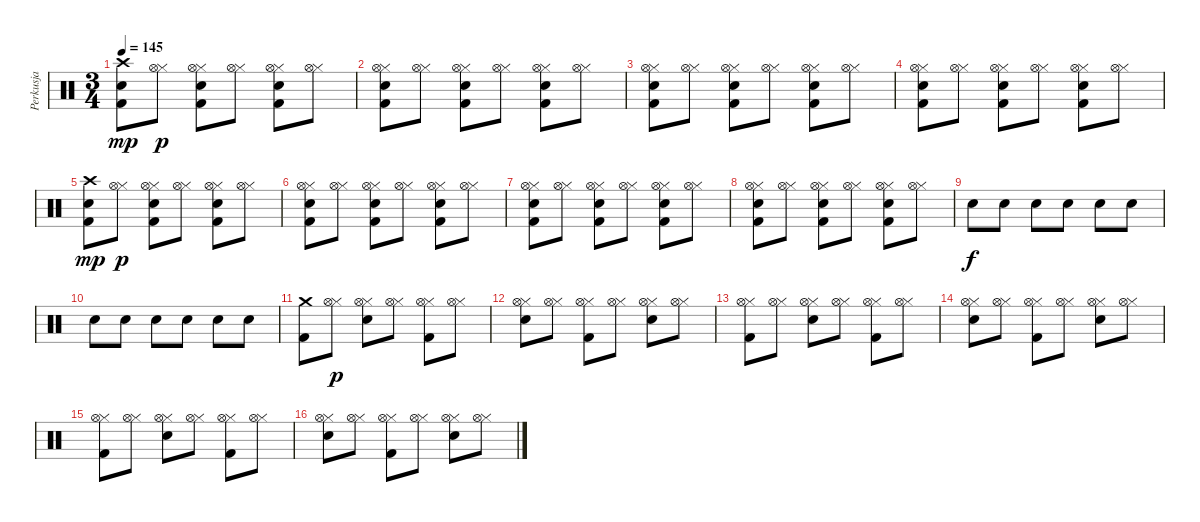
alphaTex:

\track ("Perkusja" "Perkusja") {instrument percussion}
\staff {score}
\articulation defaults
\ts (3 4)
\tempo 145
\clef neutral
\ks c
("Kick (hit) 2" "Electric Snare (hit)" "Crash high (hit)").8{dy mp} ("Hi-Hat (closed)" "Hi-Hat (open)").8{dy p} ("Kick (hit) 2" "Electric Snare (hit)" "Hi-Hat (closed)" "Hi-Hat (open)").8 ("Hi-Hat (closed)" "Hi-Hat (open)").8 ("Kick (hit) 2" "Electric Snare (hit)" "Hi-Hat (closed)" "Hi-Hat (open)").8 ("Hi-Hat (closed)" "Hi-Hat (open)").8 |
("Kick (hit) 2" "Electric Snare (hit)" "Hi-Hat (closed)" "Hi-Hat (open)").8 ("Hi-Hat (closed)" "Hi-Hat (open)").8 ("Kick (hit) 2" "Electric Snare (hit)" "Hi-Hat (closed)" "Hi-Hat (open)").8 ("Hi-Hat (closed)" "Hi-Hat (open)").8 ("Kick (hit) 2" "Electric Snare (hit)" "Hi-Hat (closed)" "Hi-Hat (open)").8 ("Hi-Hat (closed)" "Hi-Hat (open)").8 |
("Kick (hit) 2" "Electric Snare (hit)" "Hi-Hat (closed)" "Hi-Hat (open)").8 ("Hi-Hat (closed)" "Hi-Hat (open)").8 ("Kick (hit) 2" "Electric Snare (hit)" "Hi-Hat (closed)" "Hi-Hat (open)").8 ("Hi-Hat (closed)" "Hi-Hat (open)").8 ("Kick (hit) 2" "Electric Snare (hit)" "Hi-Hat (closed)" "Hi-Hat (open)").8 ("Hi-Hat (closed)" "Hi-Hat (open)").8 |
("Kick (hit) 2" "Electric Snare (hit)" "Hi-Hat (closed)" "Hi-Hat (open)").8 ("Hi-Hat (closed)" "Hi-Hat (open)").8 ("Kick (hit) 2" "Electric Snare (hit)" "Hi-Hat (closed)" "Hi-Hat (open)").8 ("Hi-Hat (closed)" "Hi-Hat (open)").8 ("Kick (hit) 2" "Electric Snare (hit)" "Hi-Hat (closed)" "Hi-Hat (open)").8 ("Hi-Hat (closed)" "Hi-Hat (open)").8 |
("Kick (hit) 2" "Electric Snare (hit)" "Crash high (hit)").8{dy mp} ("Hi-Hat (closed)" "Hi-Hat (open)").8{dy p} ("Kick (hit) 2" "Electric Snare (hit)" "Hi-Hat (closed)" "Hi-Hat (open)").8 ("Hi-Hat (closed)" "Hi-Hat (open)").8 ("Kick (hit) 2" "Electric Snare (hit)" "Hi-Hat (closed)" "Hi-Hat (open)").8 ("Hi-Hat (closed)" "Hi-Hat (open)").8 |
("Kick (hit) 2" "Electric Snare (hit)" "Hi-Hat (closed)" "Hi-Hat (open)").8 ("Hi-Hat (closed)" "Hi-Hat (open)").8 ("Kick (hit) 2" "Electric Snare (hit)" "Hi-Hat (closed)" "Hi-Hat (open)").8 ("Hi-Hat (closed)" "Hi-Hat (open)").8 ("Kick (hit) 2" "Electric Snare (hit)" "Hi-Hat (closed)" "Hi-Hat (open)").8 ("Hi-Hat (closed)" "Hi-Hat (open)").8 |
("Kick (hit) 2" "Electric Snare (hit)" "Hi-Hat (closed)" "Hi-Hat (open)").8 ("Hi-Hat (closed)" "Hi-Hat (open)").8 ("Kick (hit) 2" "Electric Snare (hit)" "Hi-Hat (closed)" "Hi-Hat (open)").8 ("Hi-Hat (closed)" "Hi-Hat (open)").8 ("Kick (hit) 2" "Electric Snare (hit)" "Hi-Hat (closed)" "Hi-Hat (open)").8 ("Hi-Hat (closed)" "Hi-Hat (open)").8 |
("Kick (hit) 2" "Electric Snare (hit)" "Hi-Hat (closed)" "Hi-Hat (open)").8 ("Hi-Hat (closed)" "Hi-Hat (open)").8 ("Kick (hit) 2" "Electric Snare (hit)" "Hi-Hat (closed)" "Hi-Hat (open)").8 ("Hi-Hat (closed)" "Hi-Hat (open)").8 ("Kick (hit) 2" "Electric Snare (hit)" "Hi-Hat (closed)" "Hi-Hat (open)").8 ("Hi-Hat (closed)" "Hi-Hat (open)").8 |
"Electric Snare (hit)".8{dy f} "Electric Snare (hit)".8 "Electric Snare (hit)".8 "Electric Snare (hit)".8 "Electric Snare (hit)".8 "Electric Snare (hit)".8 |
"Electric Snare (hit)".8 "Electric Snare (hit)".8 "Electric Snare (hit)".8 "Electric Snare (hit)".8 "Electric Snare (hit)".8 "Electric Snare (hit)".8 |
("Kick (hit) 2" "Crash medium (hit)").8 ("Hi-Hat (closed)" "Hi-Hat (open)").8{dy p} ("Electric Snare (hit)" "Hi-Hat (closed)" "Hi-Hat (open)").8 ("Hi-Hat (closed)" "Hi-Hat (open)").8 ("Kick (hit) 2" "Hi-Hat (closed)" "Hi-Hat (open)").8 ("Hi-Hat (closed)" "Hi-Hat (open)").8 |
("Electric Snare (hit)" "Hi-Hat (closed)" "Hi-Hat (open)").8 ("Hi-Hat (closed)" "Hi-Hat (open)").8 ("Kick (hit) 2" "Hi-Hat (closed)" "Hi-Hat (open)").8 ("Hi-Hat (closed)" "Hi-Hat (open)").8 ("Electric Snare (hit)" "Hi-Hat (closed)" "Hi-Hat (open)").8 ("Hi-Hat (closed)" "Hi-Hat (open)").8 |
("Kick (hit) 2" "Hi-Hat (closed)" "Hi-Hat (open)").8 ("Hi-Hat (closed)" "Hi-Hat (open)").8 ("Electric Snare (hit)" "Hi-Hat (closed)" "Hi-Hat (open)").8 ("Hi-Hat (closed)" "Hi-Hat (open)").8 ("Kick (hit) 2" "Hi-Hat (closed)" "Hi-Hat (open)").8 ("Hi-Hat (closed)" "Hi-Hat (open)").8 |
("Electric Snare (hit)" "Hi-Hat (closed)" "Hi-Hat (open)").8 ("Hi-Hat (closed)" "Hi-Hat (open)").8 ("Kick (hit) 2" "Hi-Hat (closed)" "Hi-Hat (open)").8 ("Hi-Hat (closed)" "Hi-Hat (open)").8 ("Electric Snare (hit)" "Hi-Hat (closed)" "Hi-Hat (open)").8 ("Hi-Hat (closed)" "Hi-Hat (open)").8 |
("Kick (hit) 2" "Hi-Hat (closed)" "Hi-Hat (open)").8 ("Hi-Hat (closed)" "Hi-Hat (open)").8 ("Electric Snare (hit)" "Hi-Hat (closed)" "Hi-Hat (open)").8 ("Hi-Hat (closed)" "Hi-Hat (open)").8 ("Kick (hit) 2" "Hi-Hat (closed)" "Hi-Hat (open)").8 ("Hi-Hat (closed)" "Hi-Hat (open)").8 |
("Electric Snare (hit)" "Hi-Hat (closed)" "Hi-Hat (open)").8 ("Hi-Hat (closed)" "Hi-Hat (open)").8 ("Kick (hit) 2" "Hi-Hat (closed)" "Hi-Hat (open)").8 ("Hi-Hat (closed)" "Hi-Hat (open)").8 ("Electric Snare (hit)" "Hi-Hat (closed)" "Hi-Hat (open)").8 ("Hi-Hat (closed)" "Hi-Hat (open)").8
